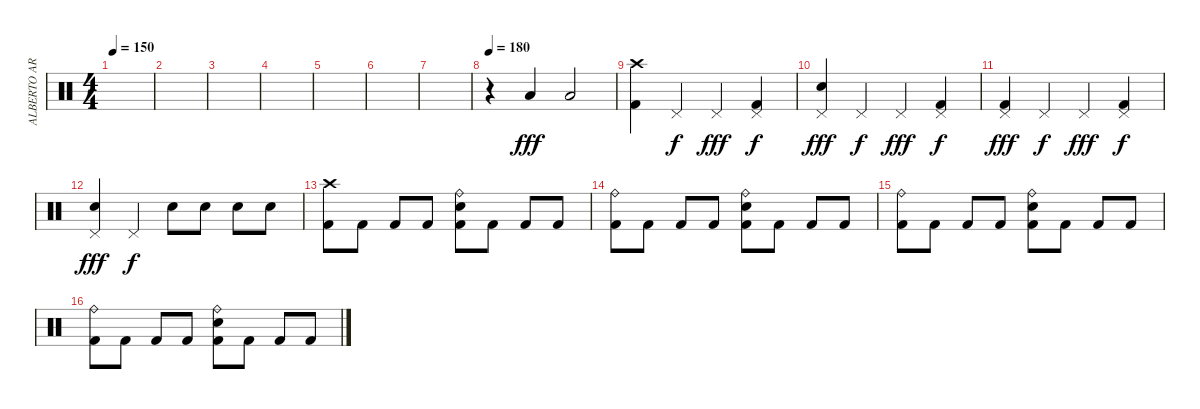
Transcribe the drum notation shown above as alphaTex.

\track ("ALBERTO ARDINES" "ALBERTO AR") {instrument percussion}
\staff {score}
\articulation defaults
\ts (4 4)
\tempo 150
\clef neutral
\ks c
|
|
|
|
|
|
|
\tempo 180
r.4 "Low Tom (hit)".4{dy fff} "Low Tom (hit)".2 |
("Crash high (hit)" "Kick (hit) 2").4 "Pedal Hi-Hat (hit)".4{dy f} "Pedal Hi-Hat (hit)".4{dy fff} ("Pedal Hi-Hat (hit)" "Kick (hit) 2").4{dy f} |
("Pedal Hi-Hat (hit)" "Electric Snare (hit)").4{dy fff} "Pedal Hi-Hat (hit)".4{dy f} "Pedal Hi-Hat (hit)".4{dy fff} ("Pedal Hi-Hat (hit)" "Kick (hit) 2").4{dy f} |
("Pedal Hi-Hat (hit)" "Kick (hit) 2").4{dy fff} "Pedal Hi-Hat (hit)".4{dy f} "Pedal Hi-Hat (hit)".4{dy fff} ("Pedal Hi-Hat (hit)" "Kick (hit) 2").4{dy f} |
("Pedal Hi-Hat (hit)" "Electric Snare (hit)").4{dy fff} "Pedal Hi-Hat (hit)".4{dy f} "Electric Snare (hit)".8 "Electric Snare (hit)".8 "Electric Snare (hit)".8 "Electric Snare (hit)".8 |
("Crash high (hit)" "Kick (hit) 2").8 "Kick (hit) 2".8 "Kick (hit) 2".8 "Kick (hit) 2".8 ("Ride (bell)" "Electric Snare (hit)" "Kick (hit) 2").8 "Kick (hit) 2".8 "Kick (hit) 2".8 "Kick (hit) 2".8 |
("Ride (bell)" "Kick (hit) 2").8 "Kick (hit) 2".8 "Kick (hit) 2".8 "Kick (hit) 2".8 ("Ride (bell)" "Electric Snare (hit)" "Kick (hit) 2").8 "Kick (hit) 2".8 "Kick (hit) 2".8 "Kick (hit) 2".8 |
("Ride (bell)" "Kick (hit) 2").8 "Kick (hit) 2".8 "Kick (hit) 2".8 "Kick (hit) 2".8 ("Ride (bell)" "Electric Snare (hit)" "Kick (hit) 2").8 "Kick (hit) 2".8 "Kick (hit) 2".8 "Kick (hit) 2".8 |
("Ride (bell)" "Kick (hit) 2").8 "Kick (hit) 2".8 "Kick (hit) 2".8 "Kick (hit) 2".8 ("Ride (bell)" "Electric Snare (hit)" "Kick (hit) 2").8 "Kick (hit) 2".8 "Kick (hit) 2".8 "Kick (hit) 2".8
